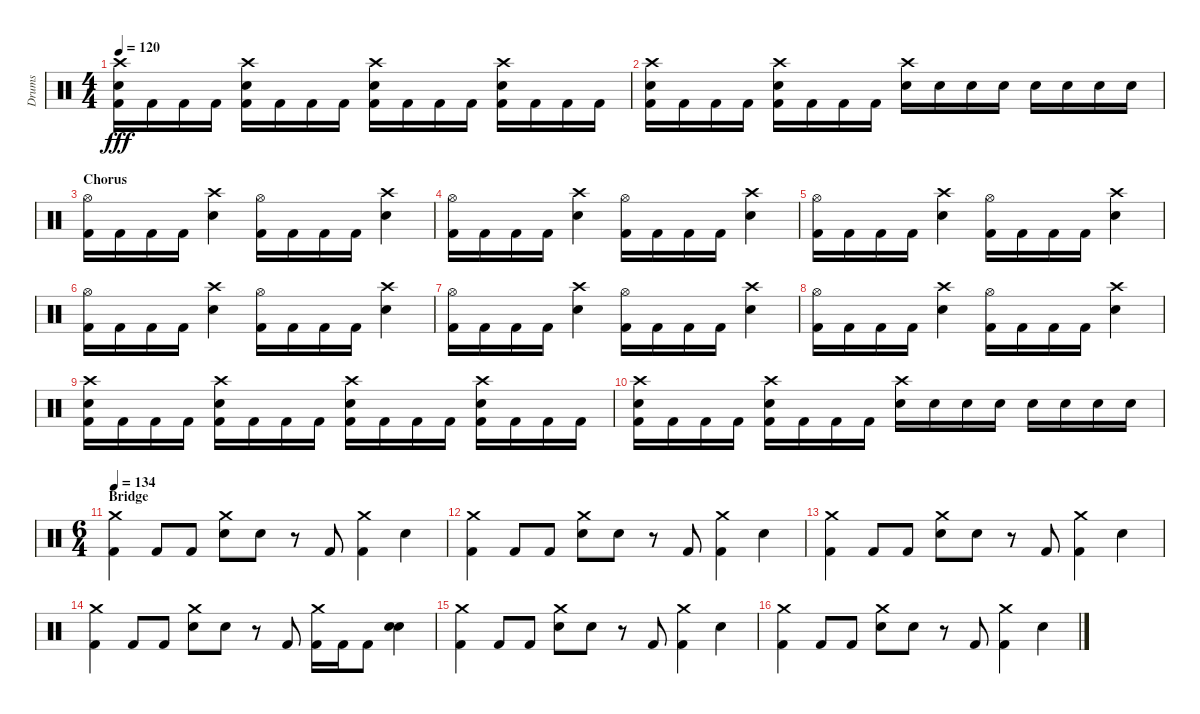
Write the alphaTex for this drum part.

\track ("Drums" "Drums") {instrument percussion}
\staff {score}
\articulation defaults
\ts (4 4)
\tempo 120
\clef neutral
\ks c
("Crash high (hit)" "Electric Snare (hit)" "Kick (hit) 2").16{dy fff} "Kick (hit) 2".16 "Kick (hit) 2".16 "Kick (hit) 2".16 ("Crash high (hit)" "Electric Snare (hit)" "Kick (hit) 2").16 "Kick (hit) 2".16 "Kick (hit) 2".16 "Kick (hit) 2".16 ("Crash high (hit)" "Electric Snare (hit)" "Kick (hit) 2").16 "Kick (hit) 2".16 "Kick (hit) 2".16 "Kick (hit) 2".16 ("Crash high (hit)" "Electric Snare (hit)" "Kick (hit) 2").16 "Kick (hit) 2".16 "Kick (hit) 2".16 "Kick (hit) 2".16 |
("Crash high (hit)" "Electric Snare (hit)" "Kick (hit) 2").16 "Kick (hit) 2".16 "Kick (hit) 2".16 "Kick (hit) 2".16 ("Crash high (hit)" "Electric Snare (hit)" "Kick (hit) 2").16 "Kick (hit) 2".16 "Kick (hit) 2".16 "Kick (hit) 2".16 ("Crash high (hit)" "Electric Snare (hit)").16 "Electric Snare (hit)".16 "Electric Snare (hit)".16 "Electric Snare (hit)".16 "Electric Snare (hit)".16 "Electric Snare (hit)".16 "Electric Snare (hit)".16 "Electric Snare (hit)".16 |
\section ("" "Chorus")
("Hi-Hat (open)" "Kick (hit) 2").16 "Kick (hit) 2".16 "Kick (hit) 2".16 "Kick (hit) 2".16 ("Crash high (hit)" "Electric Snare (hit)").4 ("Hi-Hat (open)" "Kick (hit) 2").16 "Kick (hit) 2".16 "Kick (hit) 2".16 "Kick (hit) 2".16 ("Crash high (hit)" "Electric Snare (hit)").4 |
("Hi-Hat (open)" "Kick (hit) 2").16 "Kick (hit) 2".16 "Kick (hit) 2".16 "Kick (hit) 2".16 ("Crash high (hit)" "Electric Snare (hit)").4 ("Hi-Hat (open)" "Kick (hit) 2").16 "Kick (hit) 2".16 "Kick (hit) 2".16 "Kick (hit) 2".16 ("Crash high (hit)" "Electric Snare (hit)").4 |
("Hi-Hat (open)" "Kick (hit) 2").16 "Kick (hit) 2".16 "Kick (hit) 2".16 "Kick (hit) 2".16 ("Crash high (hit)" "Electric Snare (hit)").4 ("Hi-Hat (open)" "Kick (hit) 2").16 "Kick (hit) 2".16 "Kick (hit) 2".16 "Kick (hit) 2".16 ("Crash high (hit)" "Electric Snare (hit)").4 |
("Hi-Hat (open)" "Kick (hit) 2").16 "Kick (hit) 2".16 "Kick (hit) 2".16 "Kick (hit) 2".16 ("Crash high (hit)" "Electric Snare (hit)").4 ("Hi-Hat (open)" "Kick (hit) 2").16 "Kick (hit) 2".16 "Kick (hit) 2".16 "Kick (hit) 2".16 ("Crash high (hit)" "Electric Snare (hit)").4 |
("Hi-Hat (open)" "Kick (hit) 2").16 "Kick (hit) 2".16 "Kick (hit) 2".16 "Kick (hit) 2".16 ("Crash high (hit)" "Electric Snare (hit)").4 ("Hi-Hat (open)" "Kick (hit) 2").16 "Kick (hit) 2".16 "Kick (hit) 2".16 "Kick (hit) 2".16 ("Crash high (hit)" "Electric Snare (hit)").4 |
("Hi-Hat (open)" "Kick (hit) 2").16 "Kick (hit) 2".16 "Kick (hit) 2".16 "Kick (hit) 2".16 ("Crash high (hit)" "Electric Snare (hit)").4 ("Hi-Hat (open)" "Kick (hit) 2").16 "Kick (hit) 2".16 "Kick (hit) 2".16 "Kick (hit) 2".16 ("Crash high (hit)" "Electric Snare (hit)").4 |
("Crash high (hit)" "Electric Snare (hit)" "Kick (hit) 2").16 "Kick (hit) 2".16 "Kick (hit) 2".16 "Kick (hit) 2".16 ("Crash high (hit)" "Electric Snare (hit)" "Kick (hit) 2").16 "Kick (hit) 2".16 "Kick (hit) 2".16 "Kick (hit) 2".16 ("Crash high (hit)" "Electric Snare (hit)" "Kick (hit) 2").16 "Kick (hit) 2".16 "Kick (hit) 2".16 "Kick (hit) 2".16 ("Crash high (hit)" "Electric Snare (hit)" "Kick (hit) 2").16 "Kick (hit) 2".16 "Kick (hit) 2".16 "Kick (hit) 2".16 |
("Crash high (hit)" "Electric Snare (hit)" "Kick (hit) 2").16 "Kick (hit) 2".16 "Kick (hit) 2".16 "Kick (hit) 2".16 ("Crash high (hit)" "Electric Snare (hit)" "Kick (hit) 2").16 "Kick (hit) 2".16 "Kick (hit) 2".16 "Kick (hit) 2".16 ("Crash high (hit)" "Electric Snare (hit)").16 "Electric Snare (hit)".16 "Electric Snare (hit)".16 "Electric Snare (hit)".16 "Electric Snare (hit)".16 "Electric Snare (hit)".16 "Electric Snare (hit)".16 "Electric Snare (hit)".16 |
\ts (6 4)
\section ("" "Bridge")
\tempo 134
("Crash medium (hit)" "Kick (hit) 2").4 "Kick (hit) 2".8 "Kick (hit) 2".8 ("Crash medium (hit)" "Electric Snare (hit)").8 "Electric Snare (hit)".8 r.8 "Kick (hit) 2".8 ("Crash medium (hit)" "Kick (hit) 2").4 "Electric Snare (hit)".4 |
("Crash medium (hit)" "Kick (hit) 2").4 "Kick (hit) 2".8 "Kick (hit) 2".8 ("Crash medium (hit)" "Electric Snare (hit)").8 "Electric Snare (hit)".8 r.8 "Kick (hit) 2".8 ("Crash medium (hit)" "Kick (hit) 2").4 "Electric Snare (hit)".4 |
("Crash medium (hit)" "Kick (hit) 2").4 "Kick (hit) 2".8 "Kick (hit) 2".8 ("Crash medium (hit)" "Electric Snare (hit)").8 "Electric Snare (hit)".8 r.8 "Kick (hit) 2".8 ("Crash medium (hit)" "Kick (hit) 2").4 "Electric Snare (hit)".4 |
("Crash medium (hit)" "Kick (hit) 2").4 "Kick (hit) 2".8 "Kick (hit) 2".8 ("Crash medium (hit)" "Electric Snare (hit)").8 "Electric Snare (hit)".8 r.8 "Kick (hit) 2".8 ("Crash medium (hit)" "Kick (hit) 2").16 "Kick (hit) 2".16 "Kick (hit) 2".8 ("Electric Snare (hit)" "Electric Snare (hit)").4 |
("Crash medium (hit)" "Kick (hit) 2").4 "Kick (hit) 2".8 "Kick (hit) 2".8 ("Crash medium (hit)" "Electric Snare (hit)").8 "Electric Snare (hit)".8 r.8 "Kick (hit) 2".8 ("Crash medium (hit)" "Kick (hit) 2").4 "Electric Snare (hit)".4 |
("Crash medium (hit)" "Kick (hit) 2").4 "Kick (hit) 2".8 "Kick (hit) 2".8 ("Crash medium (hit)" "Electric Snare (hit)").8 "Electric Snare (hit)".8 r.8 "Kick (hit) 2".8 ("Crash medium (hit)" "Kick (hit) 2").4 "Electric Snare (hit)".4
